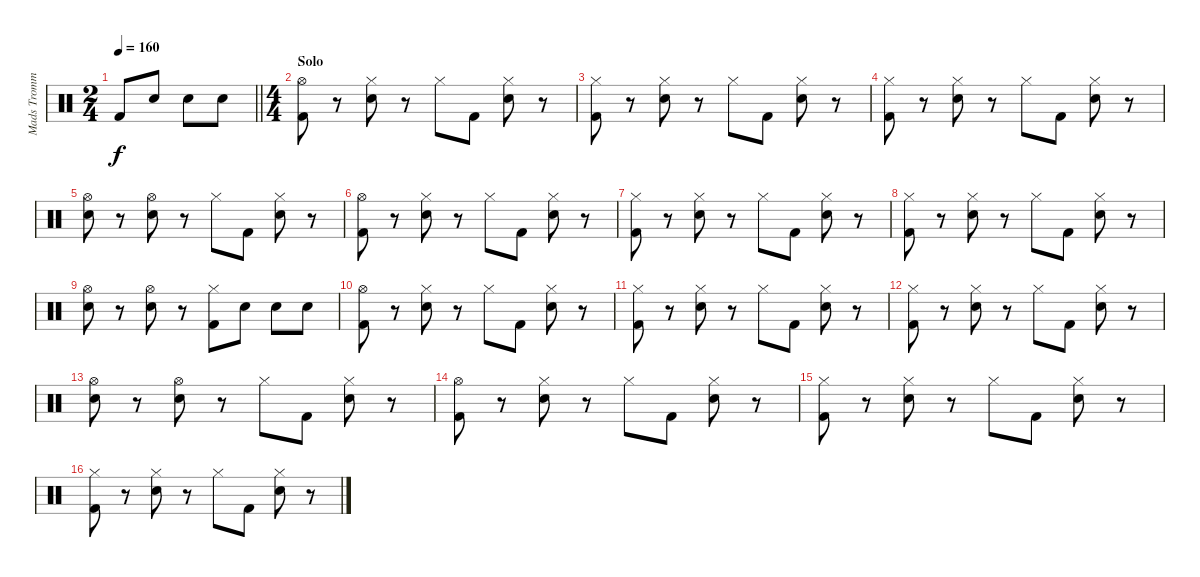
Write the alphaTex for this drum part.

\track ("Mads Trommer" "Mads Tromm") {instrument percussion}
\staff {score}
\articulation defaults
\ts (2 4)
\tempo 160
\clef neutral
\barLineRight lightlight
\ks c "Kick (hit) 2".8{dy f} "Electric Snare (hit)".8 "Electric Snare (hit)".8 "Electric Snare (hit)".8
|
\ts (4 4)
\section ("" "Solo")
("Hi-Hat (open)" "Kick (hit) 2").8 r.8 ("Hi-Hat (closed)" "Electric Snare (hit)").8 r.8 "Hi-Hat (closed)".8 "Kick (hit) 2".8 ("Hi-Hat (closed)" "Electric Snare (hit)").8 r.8 |
("Hi-Hat (closed)" "Kick (hit) 2").8 r.8 ("Hi-Hat (closed)" "Electric Snare (hit)").8 r.8 "Hi-Hat (closed)".8 "Kick (hit) 2".8 ("Hi-Hat (closed)" "Electric Snare (hit)").8 r.8 |
("Hi-Hat (closed)" "Kick (hit) 2").8 r.8 ("Hi-Hat (closed)" "Electric Snare (hit)").8 r.8 "Hi-Hat (closed)".8 "Kick (hit) 2".8 ("Hi-Hat (closed)" "Electric Snare (hit)").8 r.8 |
("Hi-Hat (open)" "Electric Snare (hit)").8 r.8 ("Hi-Hat (open)" "Electric Snare (hit)").8 r.8 "Hi-Hat (closed)".8 "Kick (hit) 2".8 ("Hi-Hat (closed)" "Electric Snare (hit)").8 r.8 |
("Hi-Hat (open)" "Kick (hit) 2").8 r.8 ("Hi-Hat (closed)" "Electric Snare (hit)").8 r.8 "Hi-Hat (closed)".8 "Kick (hit) 2".8 ("Hi-Hat (closed)" "Electric Snare (hit)").8 r.8 |
("Hi-Hat (closed)" "Kick (hit) 2").8 r.8 ("Hi-Hat (closed)" "Electric Snare (hit)").8 r.8 "Hi-Hat (closed)".8 "Kick (hit) 2".8 ("Hi-Hat (closed)" "Electric Snare (hit)").8 r.8 |
("Hi-Hat (closed)" "Kick (hit) 2").8 r.8 ("Hi-Hat (closed)" "Electric Snare (hit)").8 r.8 "Hi-Hat (closed)".8 "Kick (hit) 2".8 ("Hi-Hat (closed)" "Electric Snare (hit)").8 r.8 |
("Hi-Hat (open)" "Electric Snare (hit)").8 r.8 ("Hi-Hat (open)" "Electric Snare (hit)").8 r.8 ("Hi-Hat (closed)" "Kick (hit) 2").8 "Electric Snare (hit)".8 "Electric Snare (hit)".8 "Electric Snare (hit)".8 |
("Hi-Hat (open)" "Kick (hit) 2").8 r.8 ("Hi-Hat (closed)" "Electric Snare (hit)").8 r.8 "Hi-Hat (closed)".8 "Kick (hit) 2".8 ("Hi-Hat (closed)" "Electric Snare (hit)").8 r.8 |
("Hi-Hat (closed)" "Kick (hit) 2").8 r.8 ("Hi-Hat (closed)" "Electric Snare (hit)").8 r.8 "Hi-Hat (closed)".8 "Kick (hit) 2".8 ("Hi-Hat (closed)" "Electric Snare (hit)").8 r.8 |
("Hi-Hat (closed)" "Kick (hit) 2").8 r.8 ("Hi-Hat (closed)" "Electric Snare (hit)").8 r.8 "Hi-Hat (closed)".8 "Kick (hit) 2".8 ("Hi-Hat (closed)" "Electric Snare (hit)").8 r.8 |
("Hi-Hat (open)" "Electric Snare (hit)").8 r.8 ("Hi-Hat (open)" "Electric Snare (hit)").8 r.8 "Hi-Hat (closed)".8 "Kick (hit) 2".8 ("Hi-Hat (closed)" "Electric Snare (hit)").8 r.8 |
("Hi-Hat (open)" "Kick (hit) 2").8 r.8 ("Hi-Hat (closed)" "Electric Snare (hit)").8 r.8 "Hi-Hat (closed)".8 "Kick (hit) 2".8 ("Hi-Hat (closed)" "Electric Snare (hit)").8 r.8 |
("Hi-Hat (closed)" "Kick (hit) 2").8 r.8 ("Hi-Hat (closed)" "Electric Snare (hit)").8 r.8 "Hi-Hat (closed)".8 "Kick (hit) 2".8 ("Hi-Hat (closed)" "Electric Snare (hit)").8 r.8 |
("Hi-Hat (closed)" "Kick (hit) 2").8 r.8 ("Hi-Hat (closed)" "Electric Snare (hit)").8 r.8 "Hi-Hat (closed)".8 "Kick (hit) 2".8 ("Hi-Hat (closed)" "Electric Snare (hit)").8 r.8
